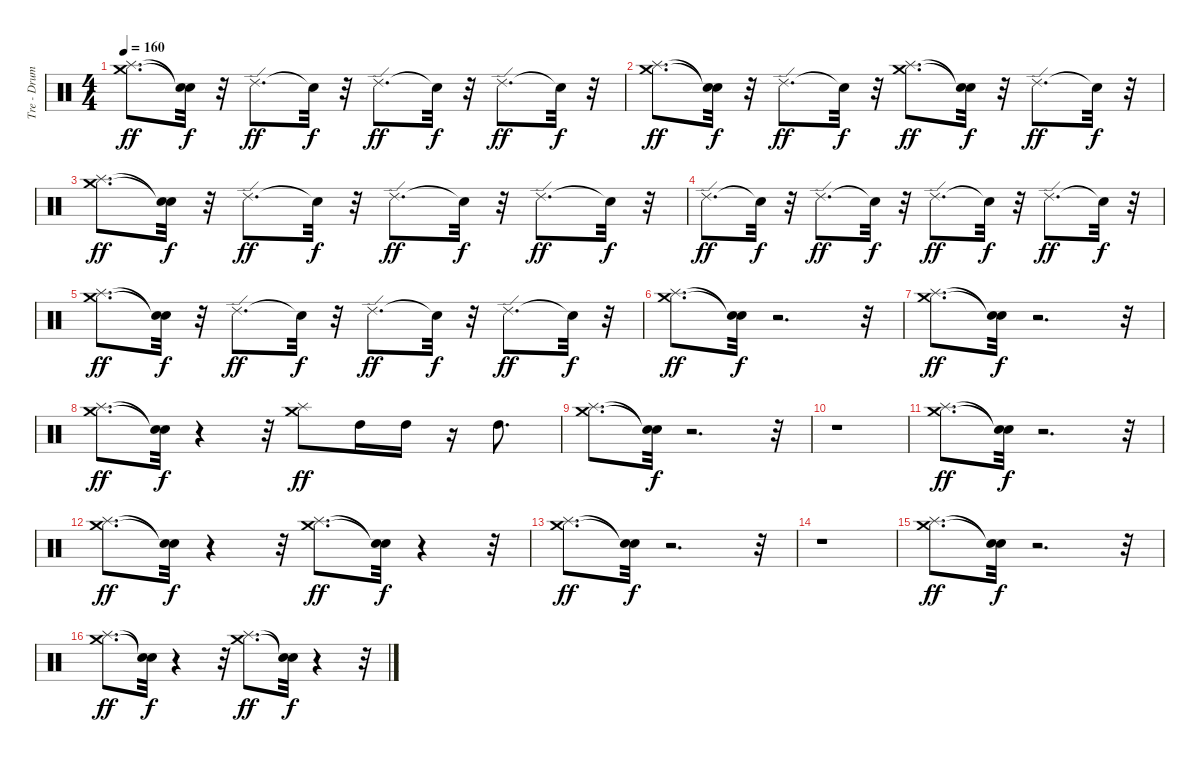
\track ("Tre - Drums" "Tre - Drum") {instrument percussion}
\staff {score}
\articulation defaults
\ts (4 4)
\tempo 160
\clef neutral
\ks c
("Splash (hit)" "Crash medium (hit)").8{d dy ff} ("Snare (hit)"{t} "Snare (hit)"{t}).32{dy f} r.32 "Ride (edge) 2".8{d dy ff} "Snare (hit)"{t}.32{dy f} r.32 "Ride (edge) 2".8{d dy ff} "Snare (hit)"{t}.32{dy f} r.32 "Ride (edge) 2".8{d dy ff} "Snare (hit)"{t}.32{dy f} r.32 |
("Splash (hit)" "Crash medium (hit)").8{d dy ff} ("Snare (hit)"{t} "Snare (hit)"{t}).32{dy f} r.32 "Ride (edge) 2".8{d dy ff} "Snare (hit)"{t}.32{dy f} r.32 ("Splash (hit)" "Crash medium (hit)").8{d dy ff} ("Snare (hit)"{t} "Snare (hit)"{t}).32{dy f} r.32 "Ride (edge) 2".8{d dy ff} "Snare (hit)"{t}.32{dy f} r.32 |
("Splash (hit)" "Crash medium (hit)").8{d dy ff} ("Snare (hit)"{t} "Snare (hit)"{t}).32{dy f} r.32 "Ride (edge) 2".8{d dy ff} "Snare (hit)"{t}.32{dy f} r.32 "Ride (edge) 2".8{d dy ff} "Snare (hit)"{t}.32{dy f} r.32 "Ride (edge) 2".8{d dy ff} "Snare (hit)"{t}.32{dy f} r.32 |
"Ride (edge) 2".8{d dy ff} "Snare (hit)"{t}.32{dy f} r.32 "Ride (edge) 2".8{d dy ff} "Snare (hit)"{t}.32{dy f} r.32 "Ride (edge) 2".8{d dy ff} "Snare (hit)"{t}.32{dy f} r.32 "Ride (edge) 2".8{d dy ff} "Snare (hit)"{t}.32{dy f} r.32 |
("Splash (hit)" "Crash medium (hit)").8{d dy ff} ("Snare (hit)"{t} "Snare (hit)"{t}).32{dy f} r.32 "Ride (edge) 2".8{d dy ff} "Snare (hit)"{t}.32{dy f} r.32 "Ride (edge) 2".8{d dy ff} "Snare (hit)"{t}.32{dy f} r.32 "Ride (edge) 2".8{d dy ff} "Snare (hit)"{t}.32{dy f} r.32 |
("Splash (hit)" "Crash medium (hit)").8{d dy ff} ("Snare (hit)"{t} "Snare (hit)"{t}).32{dy f} r.2{d} r.32 |
("Splash (hit)" "Crash medium (hit)").8{d dy ff} ("Snare (hit)"{t} "Snare (hit)"{t}).32{dy f} r.2{d} r.32 |
("Splash (hit)" "Crash medium (hit)").8{d dy ff} ("Snare (hit)"{t} "Snare (hit)"{t}).32{dy f} r.4 r.32 ("Splash (hit)" "Crash medium (hit)").8{dy ff} "High Tom (hit)".16 "High Tom (hit)".16 r.16 "High Tom (hit)".8{d} |
("Splash (hit)" "Crash medium (hit)").8{d} ("Snare (hit)"{t} "Snare (hit)"{t}).32{dy f} r.2{d} r.32 |
r.1 |
("Splash (hit)" "Crash medium (hit)").8{d dy ff} ("Snare (hit)"{t} "Snare (hit)"{t}).32{dy f} r.2{d} r.32 |
("Splash (hit)" "Crash medium (hit)").8{d dy ff} ("Snare (hit)"{t} "Snare (hit)"{t}).32{dy f} r.4 r.32 ("Splash (hit)" "Crash medium (hit)").8{d dy ff} ("Snare (hit)"{t} "Snare (hit)"{t}).32{dy f} r.4 r.32 |
("Splash (hit)" "Crash medium (hit)").8{d dy ff} ("Snare (hit)"{t} "Snare (hit)"{t}).32{dy f} r.2{d} r.32 |
r.1 |
("Splash (hit)" "Crash medium (hit)").8{d dy ff} ("Snare (hit)"{t} "Snare (hit)"{t}).32{dy f} r.2{d} r.32 |
("Splash (hit)" "Crash medium (hit)").8{d dy ff} ("Snare (hit)"{t} "Snare (hit)"{t}).32{dy f} r.4 r.32 ("Splash (hit)" "Crash medium (hit)").8{d dy ff} ("Snare (hit)"{t} "Snare (hit)"{t}).32{dy f} r.4 r.32
